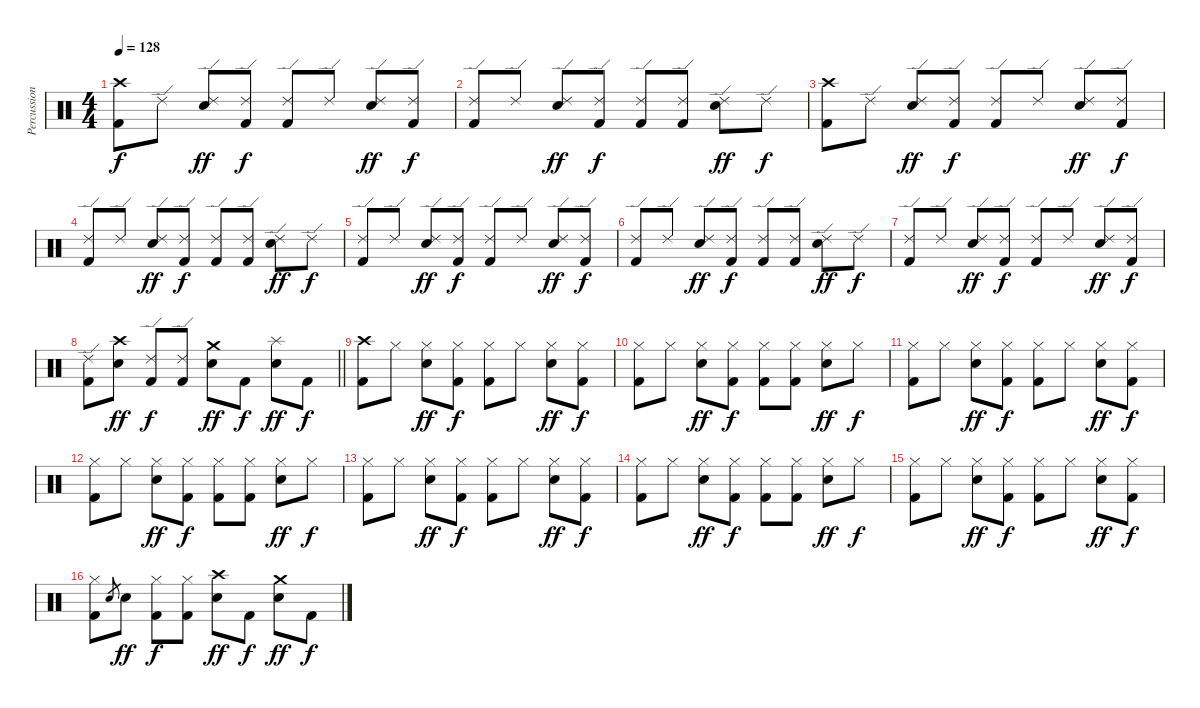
\track ("Percussion" "Percussion") {instrument percussion}
\staff {score}
\articulation defaults
\ts (4 4)
\tempo 128
\clef neutral
\ks c
("Crash high (hit)" "Kick (hit) 2").8{dy f} "Ride (edge) 2".8 ("Ride (edge) 2" "Snare (hit) 2").8{dy ff} ("Ride (edge) 2" "Kick (hit) 2").8{dy f} ("Ride (edge) 2" "Kick (hit) 2").8 "Ride (edge) 2".8 ("Ride (edge) 2" "Snare (hit) 2").8{dy ff} ("Ride (edge) 2" "Kick (hit) 2").8{dy f} |
("Ride (edge) 2" "Kick (hit) 2").8 "Ride (edge) 2".8 ("Ride (edge) 2" "Snare (hit) 2").8{dy ff} ("Ride (edge) 2" "Kick (hit) 2").8{dy f} ("Ride (edge) 2" "Kick (hit) 2").8 ("Ride (edge) 2" "Kick (hit) 2").8 ("Ride (edge) 2" "Snare (hit) 2").8{dy ff} "Ride (edge) 2".8{dy f} |
("Crash high (hit)" "Kick (hit) 2").8 "Ride (edge) 2".8 ("Ride (edge) 2" "Snare (hit) 2").8{dy ff} ("Ride (edge) 2" "Kick (hit) 2").8{dy f} ("Ride (edge) 2" "Kick (hit) 2").8 "Ride (edge) 2".8 ("Ride (edge) 2" "Snare (hit) 2").8{dy ff} ("Ride (edge) 2" "Kick (hit) 2").8{dy f} |
("Ride (edge) 2" "Kick (hit) 2").8 "Ride (edge) 2".8 ("Ride (edge) 2" "Snare (hit) 2").8{dy ff} ("Ride (edge) 2" "Kick (hit) 2").8{dy f} ("Ride (edge) 2" "Kick (hit) 2").8 ("Ride (edge) 2" "Kick (hit) 2").8 ("Ride (edge) 2" "Snare (hit) 2").8{dy ff} "Ride (edge) 2".8{dy f} |
("Ride (edge) 2" "Kick (hit) 2").8 "Ride (edge) 2".8 ("Ride (edge) 2" "Snare (hit) 2").8{dy ff} ("Ride (edge) 2" "Kick (hit) 2").8{dy f} ("Ride (edge) 2" "Kick (hit) 2").8 "Ride (edge) 2".8 ("Ride (edge) 2" "Snare (hit) 2").8{dy ff} ("Ride (edge) 2" "Kick (hit) 2").8{dy f} |
("Ride (edge) 2" "Kick (hit) 2").8 "Ride (edge) 2".8 ("Ride (edge) 2" "Snare (hit) 2").8{dy ff} ("Ride (edge) 2" "Kick (hit) 2").8{dy f} ("Ride (edge) 2" "Kick (hit) 2").8 ("Ride (edge) 2" "Kick (hit) 2").8 ("Ride (edge) 2" "Snare (hit) 2").8{dy ff} "Ride (edge) 2".8{dy f} |
("Ride (edge) 2" "Kick (hit) 2").8 "Ride (edge) 2".8 ("Ride (edge) 2" "Snare (hit) 2").8{dy ff} ("Ride (edge) 2" "Kick (hit) 2").8{dy f} ("Ride (edge) 2" "Kick (hit) 2").8 "Ride (edge) 2".8 ("Ride (edge) 2" "Snare (hit) 2").8{dy ff} ("Ride (edge) 2" "Kick (hit) 2").8{dy f} |
\barLineRight lightlight
("Ride (edge) 2" "Kick (hit) 2").8 ("Crash high (hit)" "Snare (hit) 2").8{dy ff} ("Ride (edge) 2" "Kick (hit) 2").8{dy f} ("Ride (edge) 2" "Kick (hit) 2").8 ("Crash medium (hit)" "Snare (hit) 2").8{dy ff} "Kick (hit) 2".8{dy f} ("Splash (hit)" "Snare (hit) 2").8{dy ff} "Kick (hit) 2".8{dy f} |
("Crash high (hit)" "Kick (hit) 2").8 "Hi-Hat (closed)".8 ("Hi-Hat (closed)" "Snare (hit) 2").8{dy ff} ("Hi-Hat (closed)" "Kick (hit) 2").8{dy f} ("Hi-Hat (closed)" "Kick (hit) 2").8 "Hi-Hat (closed)".8 ("Hi-Hat (closed)" "Snare (hit) 2").8{dy ff} ("Hi-Hat (closed)" "Kick (hit) 2").8{dy f} |
("Hi-Hat (closed)" "Kick (hit) 2").8 "Hi-Hat (closed)".8 ("Hi-Hat (closed)" "Snare (hit) 2").8{dy ff} ("Hi-Hat (closed)" "Kick (hit) 2").8{dy f} ("Hi-Hat (closed)" "Kick (hit) 2").8 ("Hi-Hat (closed)" "Kick (hit) 2").8 ("Hi-Hat (closed)" "Snare (hit) 2").8{dy ff} "Hi-Hat (closed)".8{dy f} |
("Hi-Hat (closed)" "Kick (hit) 2").8 "Hi-Hat (closed)".8 ("Hi-Hat (closed)" "Snare (hit) 2").8{dy ff} ("Hi-Hat (closed)" "Kick (hit) 2").8{dy f} ("Hi-Hat (closed)" "Kick (hit) 2").8 "Hi-Hat (closed)".8 ("Hi-Hat (closed)" "Snare (hit) 2").8{dy ff} ("Hi-Hat (closed)" "Kick (hit) 2").8{dy f} |
("Hi-Hat (closed)" "Kick (hit) 2").8 "Hi-Hat (closed)".8 ("Hi-Hat (closed)" "Snare (hit) 2").8{dy ff} ("Hi-Hat (closed)" "Kick (hit) 2").8{dy f} ("Hi-Hat (closed)" "Kick (hit) 2").8 ("Hi-Hat (closed)" "Kick (hit) 2").8 ("Hi-Hat (closed)" "Snare (hit) 2").8{dy ff} "Hi-Hat (closed)".8{dy f} |
("Hi-Hat (closed)" "Kick (hit) 2").8 "Hi-Hat (closed)".8 ("Hi-Hat (closed)" "Snare (hit) 2").8{dy ff} ("Hi-Hat (closed)" "Kick (hit) 2").8{dy f} ("Hi-Hat (closed)" "Kick (hit) 2").8 "Hi-Hat (closed)".8 ("Hi-Hat (closed)" "Snare (hit) 2").8{dy ff} ("Hi-Hat (closed)" "Kick (hit) 2").8{dy f} |
("Hi-Hat (closed)" "Kick (hit) 2").8 "Hi-Hat (closed)".8 ("Hi-Hat (closed)" "Snare (hit) 2").8{dy ff} ("Hi-Hat (closed)" "Kick (hit) 2").8{dy f} ("Hi-Hat (closed)" "Kick (hit) 2").8 ("Hi-Hat (closed)" "Kick (hit) 2").8 ("Hi-Hat (closed)" "Snare (hit) 2").8{dy ff} "Hi-Hat (closed)".8{dy f} |
("Hi-Hat (closed)" "Kick (hit) 2").8 "Hi-Hat (closed)".8 ("Hi-Hat (closed)" "Snare (hit) 2").8{dy ff} ("Hi-Hat (closed)" "Kick (hit) 2").8{dy f} ("Hi-Hat (closed)" "Kick (hit) 2").8 "Hi-Hat (closed)".8 ("Hi-Hat (closed)" "Snare (hit) 2").8{dy ff} ("Hi-Hat (closed)" "Kick (hit) 2").8{dy f} |
("Hi-Hat (closed)" "Kick (hit) 2").8 "Snare (hit) 2".8{gr} "Snare (hit) 2".8{dy ff} ("Hi-Hat (closed)" "Kick (hit) 2").8{dy f} ("Hi-Hat (closed)" "Kick (hit) 2").8 ("Crash high (hit)" "Snare (hit) 2").8{dy ff} "Kick (hit) 2".8{dy f} ("Crash medium (hit)" "Snare (hit) 2").8{dy ff} "Kick (hit) 2".8{dy f}
